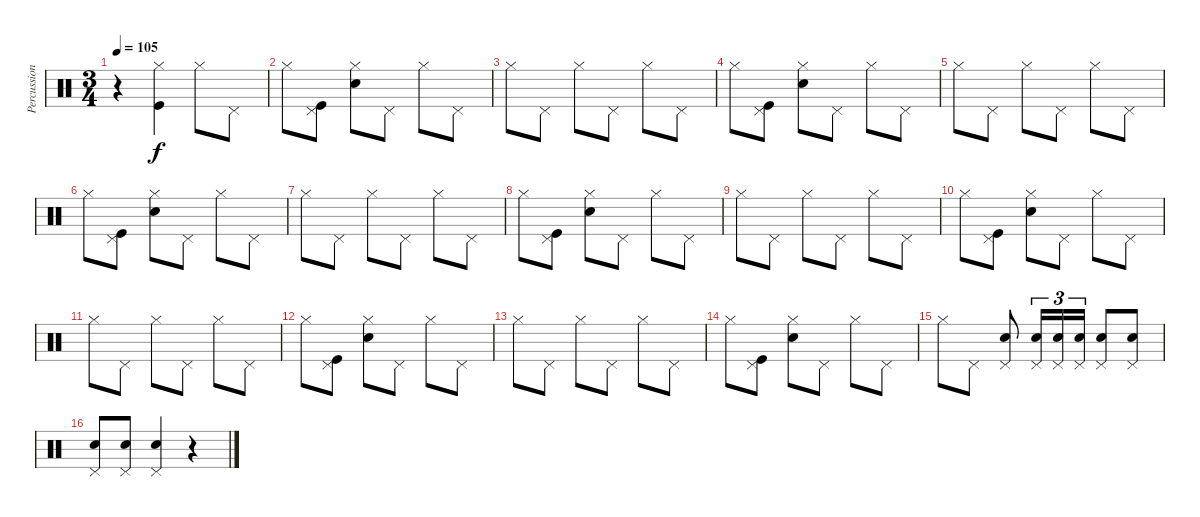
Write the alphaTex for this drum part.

\track ("Percussion" "Percussion") {instrument percussion}
\staff {score}
\articulation defaults
\ts (3 4)
\tempo 105
\clef neutral
\ks c
r.4{dy f} ("Kick (hit)" "Hi-Hat (closed)").4 "Hi-Hat (closed)".8 "Pedal Hi-Hat (hit)".8 |
"Hi-Hat (closed)".8 ("Kick (hit)" "Pedal Hi-Hat (hit)").8 ("Snare (hit) 2" "Hi-Hat (closed)").8 "Pedal Hi-Hat (hit)".8 "Hi-Hat (closed)".8 "Pedal Hi-Hat (hit)".8 |
"Hi-Hat (closed)".8 "Pedal Hi-Hat (hit)".8 "Hi-Hat (closed)".8 "Pedal Hi-Hat (hit)".8 "Hi-Hat (closed)".8 "Pedal Hi-Hat (hit)".8 |
"Hi-Hat (closed)".8 ("Kick (hit)" "Pedal Hi-Hat (hit)").8 ("Snare (hit) 2" "Hi-Hat (closed)").8 "Pedal Hi-Hat (hit)".8 "Hi-Hat (closed)".8 "Pedal Hi-Hat (hit)".8 |
"Hi-Hat (closed)".8 "Pedal Hi-Hat (hit)".8 "Hi-Hat (closed)".8 "Pedal Hi-Hat (hit)".8 "Hi-Hat (closed)".8 "Pedal Hi-Hat (hit)".8 |
"Hi-Hat (closed)".8 ("Kick (hit)" "Pedal Hi-Hat (hit)").8 ("Snare (hit) 2" "Hi-Hat (closed)").8 "Pedal Hi-Hat (hit)".8 "Hi-Hat (closed)".8 "Pedal Hi-Hat (hit)".8 |
"Hi-Hat (closed)".8 "Pedal Hi-Hat (hit)".8 "Hi-Hat (closed)".8 "Pedal Hi-Hat (hit)".8 "Hi-Hat (closed)".8 "Pedal Hi-Hat (hit)".8 |
"Hi-Hat (closed)".8 ("Kick (hit)" "Pedal Hi-Hat (hit)").8 ("Snare (hit) 2" "Hi-Hat (closed)").8 "Pedal Hi-Hat (hit)".8 "Hi-Hat (closed)".8 "Pedal Hi-Hat (hit)".8 |
"Hi-Hat (closed)".8 "Pedal Hi-Hat (hit)".8 "Hi-Hat (closed)".8 "Pedal Hi-Hat (hit)".8 "Hi-Hat (closed)".8 "Pedal Hi-Hat (hit)".8 |
"Hi-Hat (closed)".8 ("Kick (hit)" "Pedal Hi-Hat (hit)").8 ("Snare (hit) 2" "Hi-Hat (closed)").8 "Pedal Hi-Hat (hit)".8 "Hi-Hat (closed)".8 "Pedal Hi-Hat (hit)".8 |
"Hi-Hat (closed)".8 "Pedal Hi-Hat (hit)".8 "Hi-Hat (closed)".8 "Pedal Hi-Hat (hit)".8 "Hi-Hat (closed)".8 "Pedal Hi-Hat (hit)".8 |
"Hi-Hat (closed)".8 ("Kick (hit)" "Pedal Hi-Hat (hit)").8 ("Snare (hit) 2" "Hi-Hat (closed)").8 "Pedal Hi-Hat (hit)".8 "Hi-Hat (closed)".8 "Pedal Hi-Hat (hit)".8 |
"Hi-Hat (closed)".8 "Pedal Hi-Hat (hit)".8 "Hi-Hat (closed)".8 "Pedal Hi-Hat (hit)".8 "Hi-Hat (closed)".8 "Pedal Hi-Hat (hit)".8 |
"Hi-Hat (closed)".8 ("Kick (hit)" "Pedal Hi-Hat (hit)").8 ("Snare (hit) 2" "Hi-Hat (closed)").8 "Pedal Hi-Hat (hit)".8 "Hi-Hat (closed)".8 "Pedal Hi-Hat (hit)".8 |
"Hi-Hat (closed)".8 "Pedal Hi-Hat (hit)".8 ("Snare (hit) 2" "Pedal Hi-Hat (hit)").8 ("Snare (hit) 2" "Pedal Hi-Hat (hit)").16{tu (3 2)} ("Snare (hit) 2" "Pedal Hi-Hat (hit)").16{tu (3 2)} ("Snare (hit) 2" "Pedal Hi-Hat (hit)").16{tu (3 2)} ("Snare (hit) 2" "Pedal Hi-Hat (hit)").8 ("Snare (hit) 2" "Pedal Hi-Hat (hit)").8 |
("Snare (hit) 2" "Pedal Hi-Hat (hit)").8 ("Snare (hit) 2" "Pedal Hi-Hat (hit)").8 ("Snare (hit) 2" "Pedal Hi-Hat (hit)").4 r.4
